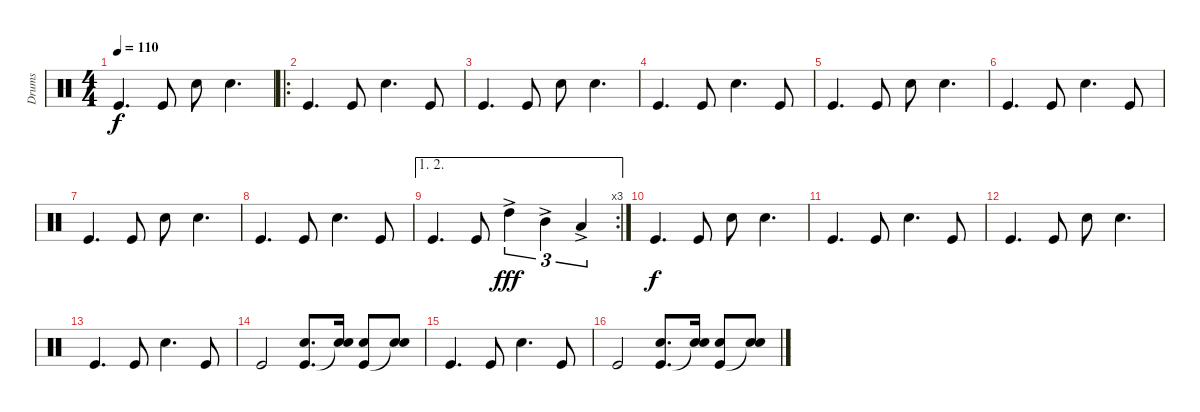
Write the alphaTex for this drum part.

\track ("Drums" "Drums") {instrument percussion}
\staff {score}
\articulation defaults
\ts (4 4)
\tempo 110
\clef neutral
\ks c "Kick (hit)".4{d dy f} "Kick (hit)".8 "Snare (hit) 2".8 "Snare (hit) 2".4{d}
|
\ro "Kick (hit)".4{d} "Kick (hit)".8 "Snare (hit) 2".4{d} "Kick (hit)".8
|
"Kick (hit)".4{d} "Kick (hit)".8 "Snare (hit) 2".8 "Snare (hit) 2".4{d} |
"Kick (hit)".4{d} "Kick (hit)".8 "Snare (hit) 2".4{d} "Kick (hit)".8 |
"Kick (hit)".4{d} "Kick (hit)".8 "Snare (hit) 2".8 "Snare (hit) 2".4{d} |
"Kick (hit)".4{d} "Kick (hit)".8 "Snare (hit) 2".4{d} "Kick (hit)".8 |
"Kick (hit)".4{d} "Kick (hit)".8 "Snare (hit) 2".8 "Snare (hit) 2".4{d} |
"Kick (hit)".4{d} "Kick (hit)".8 "Snare (hit) 2".4{d} "Kick (hit)".8 |
\ae (1 2)
\rc 3 "Kick (hit)".4{d} "Kick (hit)".8 "High Tom (hit)"{ac}.4{tu (3 2) dy fff} "Mid Tom (hit)"{ac}.4{tu (3 2)} "Low Tom (hit)"{ac}.4{tu (3 2)}
|
"Kick (hit)".4{d dy f} "Kick (hit)".8 "Snare (hit) 2".8 "Snare (hit) 2".4{d} |
"Kick (hit)".4{d} "Kick (hit)".8 "Snare (hit) 2".4{d} "Kick (hit)".8 |
"Kick (hit)".4{d} "Kick (hit)".8 "Snare (hit) 2".8 "Snare (hit) 2".4{d} |
"Kick (hit)".4{d} "Kick (hit)".8 "Snare (hit) 2".4{d} "Kick (hit)".8 |
"Kick (hit)".2 ("Kick (hit)" "Snare (hit) 2").8{d} ("Snare (hit)"{t} "Snare (hit) 2").16 ("Kick (hit)" "Snare (hit) 2").8 ("Snare (hit)"{t} "Snare (hit) 2").8 |
"Kick (hit)".4{d} "Kick (hit)".8 "Snare (hit) 2".4{d} "Kick (hit)".8 |
"Kick (hit)".2 ("Kick (hit)" "Snare (hit) 2").8{d} ("Snare (hit)"{t} "Snare (hit) 2").16 ("Kick (hit)" "Snare (hit) 2").8 ("Snare (hit)"{t} "Snare (hit) 2").8
